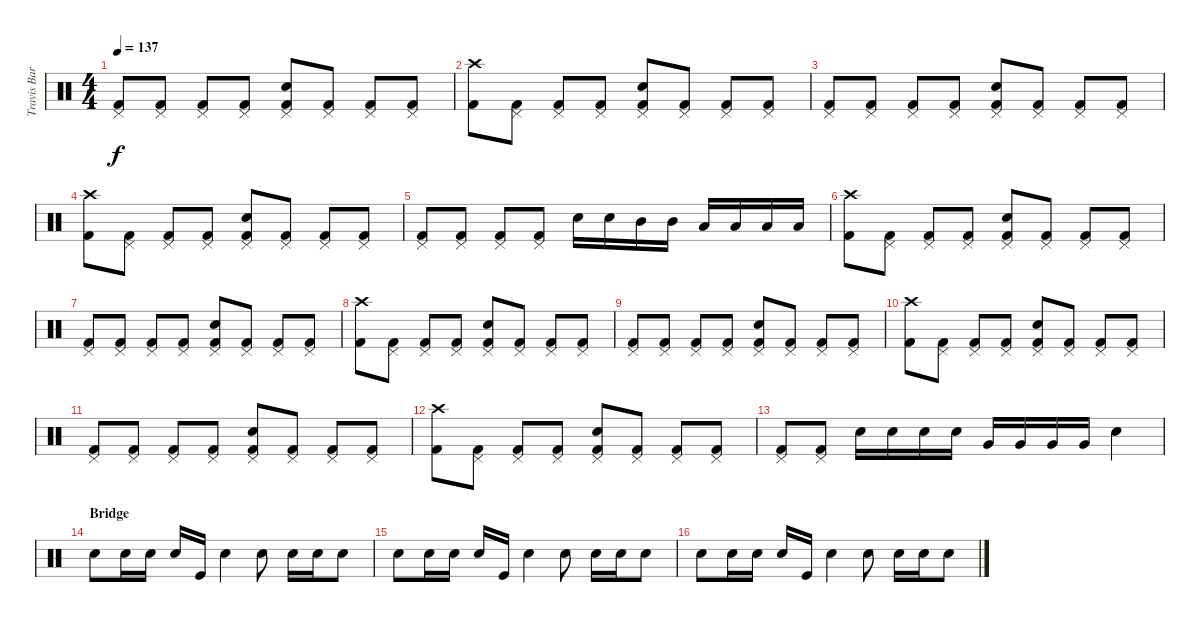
\track ("Travis Barker" "Travis Bar") {instrument percussion}
\staff {score}
\articulation defaults
\ts (4 4)
\tempo 137
\clef neutral
\ks c
("Pedal Hi-Hat (hit)" "Kick (hit) 2").8{dy f} ("Pedal Hi-Hat (hit)" "Kick (hit) 2").8 ("Pedal Hi-Hat (hit)" "Kick (hit) 2").8 ("Pedal Hi-Hat (hit)" "Kick (hit) 2").8 ("Pedal Hi-Hat (hit)" "Snare (hit) 2" "Kick (hit) 2").8 ("Pedal Hi-Hat (hit)" "Kick (hit) 2").8 ("Pedal Hi-Hat (hit)" "Kick (hit) 2").8 ("Pedal Hi-Hat (hit)" "Kick (hit) 2").8 |
("Crash high (hit)" "Kick (hit) 2").8 ("Pedal Hi-Hat (hit)" "Kick (hit) 2").8 ("Pedal Hi-Hat (hit)" "Kick (hit) 2").8 ("Pedal Hi-Hat (hit)" "Kick (hit) 2").8 ("Pedal Hi-Hat (hit)" "Snare (hit) 2" "Kick (hit) 2").8 ("Pedal Hi-Hat (hit)" "Kick (hit) 2").8 ("Pedal Hi-Hat (hit)" "Kick (hit) 2").8 ("Pedal Hi-Hat (hit)" "Kick (hit) 2").8 |
("Pedal Hi-Hat (hit)" "Kick (hit) 2").8 ("Pedal Hi-Hat (hit)" "Kick (hit) 2").8 ("Pedal Hi-Hat (hit)" "Kick (hit) 2").8 ("Pedal Hi-Hat (hit)" "Kick (hit) 2").8 ("Pedal Hi-Hat (hit)" "Snare (hit) 2" "Kick (hit) 2").8 ("Pedal Hi-Hat (hit)" "Kick (hit) 2").8 ("Pedal Hi-Hat (hit)" "Kick (hit) 2").8 ("Pedal Hi-Hat (hit)" "Kick (hit) 2").8 |
("Crash high (hit)" "Kick (hit) 2").8 ("Pedal Hi-Hat (hit)" "Kick (hit) 2").8 ("Pedal Hi-Hat (hit)" "Kick (hit) 2").8 ("Pedal Hi-Hat (hit)" "Kick (hit) 2").8 ("Pedal Hi-Hat (hit)" "Snare (hit) 2" "Kick (hit) 2").8 ("Pedal Hi-Hat (hit)" "Kick (hit) 2").8 ("Pedal Hi-Hat (hit)" "Kick (hit) 2").8 ("Pedal Hi-Hat (hit)" "Kick (hit) 2").8 |
("Pedal Hi-Hat (hit)" "Kick (hit) 2").8 ("Pedal Hi-Hat (hit)" "Kick (hit) 2").8 ("Pedal Hi-Hat (hit)" "Kick (hit) 2").8 ("Pedal Hi-Hat (hit)" "Kick (hit) 2").8 "Snare (hit) 2".16 "Snare (hit) 2".16 "Mid Tom (hit)".16 "Mid Tom (hit)".16 "Low Tom (hit)".16 "Low Tom (hit)".16 "Low Tom (hit)".16 "Low Tom (hit)".16 |
("Crash high (hit)" "Kick (hit) 2").8 ("Pedal Hi-Hat (hit)" "Kick (hit) 2").8 ("Pedal Hi-Hat (hit)" "Kick (hit) 2").8 ("Pedal Hi-Hat (hit)" "Kick (hit) 2").8 ("Pedal Hi-Hat (hit)" "Snare (hit) 2" "Kick (hit) 2").8 ("Pedal Hi-Hat (hit)" "Kick (hit) 2").8 ("Pedal Hi-Hat (hit)" "Kick (hit) 2").8 ("Pedal Hi-Hat (hit)" "Kick (hit) 2").8 |
("Pedal Hi-Hat (hit)" "Kick (hit) 2").8 ("Pedal Hi-Hat (hit)" "Kick (hit) 2").8 ("Pedal Hi-Hat (hit)" "Kick (hit) 2").8 ("Pedal Hi-Hat (hit)" "Kick (hit) 2").8 ("Pedal Hi-Hat (hit)" "Snare (hit) 2" "Kick (hit) 2").8 ("Pedal Hi-Hat (hit)" "Kick (hit) 2").8 ("Pedal Hi-Hat (hit)" "Kick (hit) 2").8 ("Pedal Hi-Hat (hit)" "Kick (hit) 2").8 |
("Crash high (hit)" "Kick (hit) 2").8 ("Pedal Hi-Hat (hit)" "Kick (hit) 2").8 ("Pedal Hi-Hat (hit)" "Kick (hit) 2").8 ("Pedal Hi-Hat (hit)" "Kick (hit) 2").8 ("Pedal Hi-Hat (hit)" "Snare (hit) 2" "Kick (hit) 2").8 ("Pedal Hi-Hat (hit)" "Kick (hit) 2").8 ("Pedal Hi-Hat (hit)" "Kick (hit) 2").8 ("Pedal Hi-Hat (hit)" "Kick (hit) 2").8 |
("Pedal Hi-Hat (hit)" "Kick (hit) 2").8 ("Pedal Hi-Hat (hit)" "Kick (hit) 2").8 ("Pedal Hi-Hat (hit)" "Kick (hit) 2").8 ("Pedal Hi-Hat (hit)" "Kick (hit) 2").8 ("Pedal Hi-Hat (hit)" "Snare (hit) 2" "Kick (hit) 2").8 ("Pedal Hi-Hat (hit)" "Kick (hit) 2").8 ("Pedal Hi-Hat (hit)" "Kick (hit) 2").8 ("Pedal Hi-Hat (hit)" "Kick (hit) 2").8 |
("Crash high (hit)" "Kick (hit) 2").8 ("Pedal Hi-Hat (hit)" "Kick (hit) 2").8 ("Pedal Hi-Hat (hit)" "Kick (hit) 2").8 ("Pedal Hi-Hat (hit)" "Kick (hit) 2").8 ("Pedal Hi-Hat (hit)" "Snare (hit) 2" "Kick (hit) 2").8 ("Pedal Hi-Hat (hit)" "Kick (hit) 2").8 ("Pedal Hi-Hat (hit)" "Kick (hit) 2").8 ("Pedal Hi-Hat (hit)" "Kick (hit) 2").8 |
("Pedal Hi-Hat (hit)" "Kick (hit) 2").8 ("Pedal Hi-Hat (hit)" "Kick (hit) 2").8 ("Pedal Hi-Hat (hit)" "Kick (hit) 2").8 ("Pedal Hi-Hat (hit)" "Kick (hit) 2").8 ("Pedal Hi-Hat (hit)" "Snare (hit) 2" "Kick (hit) 2").8 ("Pedal Hi-Hat (hit)" "Kick (hit) 2").8 ("Pedal Hi-Hat (hit)" "Kick (hit) 2").8 ("Pedal Hi-Hat (hit)" "Kick (hit) 2").8 |
("Crash high (hit)" "Kick (hit) 2").8 ("Pedal Hi-Hat (hit)" "Kick (hit) 2").8 ("Pedal Hi-Hat (hit)" "Kick (hit) 2").8 ("Pedal Hi-Hat (hit)" "Kick (hit) 2").8 ("Pedal Hi-Hat (hit)" "Snare (hit) 2" "Kick (hit) 2").8 ("Pedal Hi-Hat (hit)" "Kick (hit) 2").8 ("Pedal Hi-Hat (hit)" "Kick (hit) 2").8 ("Pedal Hi-Hat (hit)" "Kick (hit) 2").8 |
("Pedal Hi-Hat (hit)" "Kick (hit) 2").8 ("Pedal Hi-Hat (hit)" "Kick (hit) 2").8 "Snare (hit) 2".16 "Snare (hit) 2".16 "Snare (hit) 2".16 "Snare (hit) 2".16 "Very Low Tom (hit)".16 "Very Low Tom (hit)".16 "Very Low Tom (hit)".16 "Very Low Tom (hit)".16 "Snare (hit) 2".4 |
\section ("" "Bridge")
"Snare (hit) 2".8 "Snare (hit) 2".16 "Snare (hit) 2".16 "Snare (hit) 2".16 "Kick (hit)".16 "Snare (hit) 2".4 "Snare (hit) 2".8 "Snare (hit) 2".16 "Snare (hit) 2".16 "Snare (hit) 2".8 |
"Snare (hit) 2".8 "Snare (hit) 2".16 "Snare (hit) 2".16 "Snare (hit) 2".16 "Kick (hit)".16 "Snare (hit) 2".4 "Snare (hit) 2".8 "Snare (hit) 2".16 "Snare (hit) 2".16 "Snare (hit) 2".8 |
"Snare (hit) 2".8 "Snare (hit) 2".16 "Snare (hit) 2".16 "Snare (hit) 2".16 "Kick (hit)".16 "Snare (hit) 2".4 "Snare (hit) 2".8 "Snare (hit) 2".16 "Snare (hit) 2".16 "Snare (hit) 2".8
